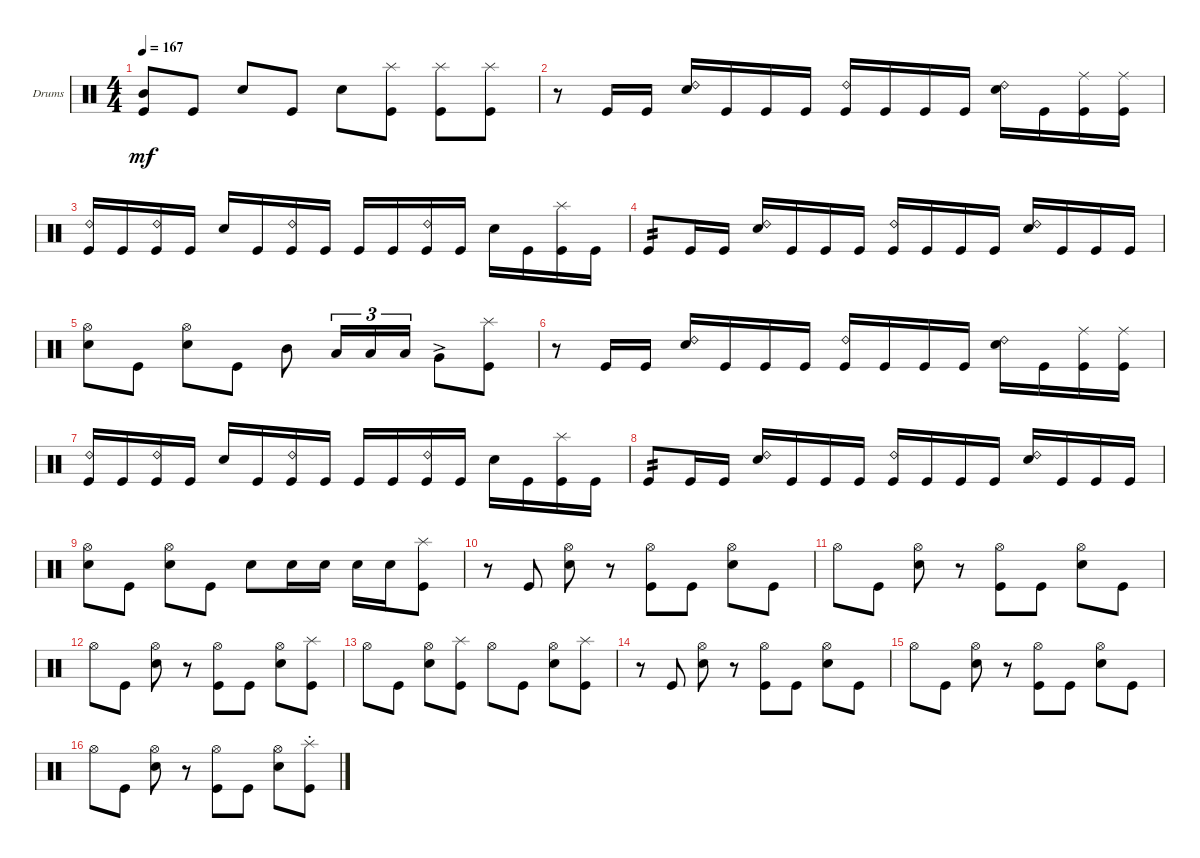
\bracketExtendMode groupsimilarinstruments
\firstSystemTrackNameOrientation horizontal
\otherSystemsTrackNameOrientation horizontal
\track ("Drumkit" "Drums") {instrument percussion}
\staff {score}
\articulation defaults
\ts (4 4)
\tempo 167
\clef neutral
\ks c
("Kick (hit)" "Mid Tom (hit)").8{dy mf} "Kick (hit)".8 "Snare (hit) 2".8 "Kick (hit)".8 "Snare (hit) 2".8 ("Kick (hit)" "Splash (hit)").8 ("Kick (hit)" "Splash (hit)").8 ("Kick (hit)" "Splash (hit)").8 |
r.8 "Kick (hit)".16 "Kick (hit)".16 ("Snare (hit) 2" "Ride (bell) 2").16 "Kick (hit)".16 "Kick (hit)".16 "Kick (hit)".16 ("Kick (hit)" "Ride (bell) 2").16 "Kick (hit)".16 "Kick (hit)".16 "Kick (hit)".16 ("Snare (hit) 2" "Ride (bell) 2").16 "Kick (hit)".16 ("Kick (hit)" "Ride (middle)").16 ("Kick (hit)" "Ride (middle)").16 |
("Kick (hit)" "Ride (bell) 2").16 "Kick (hit)".16 ("Kick (hit)" "Ride (bell) 2").16 "Kick (hit)".16 "Snare (hit) 2".16 "Kick (hit)".16 ("Kick (hit)" "Ride (bell) 2").16 "Kick (hit)".16 "Kick (hit)".16 "Kick (hit)".16 ("Kick (hit)" "Ride (bell) 2").16 "Kick (hit)".16 "Snare (hit) 2".16 "Kick (hit)".16 ("Kick (hit)" "Splash (hit)").16 "Kick (hit)".16 |
"Kick (hit)".8{tp 2} "Kick (hit)".16 "Kick (hit)".16 ("Snare (hit) 2" "Ride (bell) 2").16 "Kick (hit)".16 "Kick (hit)".16 "Kick (hit)".16 ("Kick (hit)" "Ride (bell) 2").16 "Kick (hit)".16 "Kick (hit)".16 "Kick (hit)".16 ("Snare (hit) 2" "Ride (bell) 2").16 "Kick (hit)".16 "Kick (hit)".16 "Kick (hit)".16 |
("Snare (hit) 2" "Hi-Hat (open)").8 "Kick (hit)".8 ("Snare (hit) 2" "Hi-Hat (open)").8 "Kick (hit)".8 "Mid Tom (hit)".8 "Low Tom (hit)".16{tu (3 2)} "Low Tom (hit)".16{tu (3 2)} "Low Tom (hit)".16{tu (3 2)} "Very Low Tom (hit)"{ac}.8 ("Kick (hit)" "Splash (hit)").8 |
r.8 "Kick (hit)".16 "Kick (hit)".16 ("Snare (hit) 2" "Ride (bell) 2").16 "Kick (hit)".16 "Kick (hit)".16 "Kick (hit)".16 ("Kick (hit)" "Ride (bell) 2").16 "Kick (hit)".16 "Kick (hit)".16 "Kick (hit)".16 ("Snare (hit) 2" "Ride (bell) 2").16 "Kick (hit)".16 ("Kick (hit)" "Ride (middle)").16 ("Kick (hit)" "Ride (middle)").16 |
("Kick (hit)" "Ride (bell) 2").16 "Kick (hit)".16 ("Kick (hit)" "Ride (bell) 2").16 "Kick (hit)".16 "Snare (hit) 2".16 "Kick (hit)".16 ("Kick (hit)" "Ride (bell) 2").16 "Kick (hit)".16 "Kick (hit)".16 "Kick (hit)".16 ("Kick (hit)" "Ride (bell) 2").16 "Kick (hit)".16 "Snare (hit) 2".16 "Kick (hit)".16 ("Kick (hit)" "Splash (hit)").16 "Kick (hit)".16 |
"Kick (hit)".8{tp 2} "Kick (hit)".16 "Kick (hit)".16 ("Snare (hit) 2" "Ride (bell) 2").16 "Kick (hit)".16 "Kick (hit)".16 "Kick (hit)".16 ("Kick (hit)" "Ride (bell) 2").16 "Kick (hit)".16 "Kick (hit)".16 "Kick (hit)".16 ("Snare (hit) 2" "Ride (bell) 2").16 "Kick (hit)".16 "Kick (hit)".16 "Kick (hit)".16 |
("Snare (hit) 2" "Hi-Hat (open)").8 "Kick (hit)".8 ("Snare (hit) 2" "Hi-Hat (open)").8 "Kick (hit)".8 "Snare (hit) 2".8 "Snare (hit) 2".16 "Snare (hit) 2".16 "Snare (hit) 2".16 "Snare (hit) 2".16 ("Kick (hit)" "Splash (hit)").8 |
r.8 "Kick (hit)".8 ("Snare (hit) 2" "Hi-Hat (open)").8 r.8 ("Kick (hit)" "Hi-Hat (open)").8 "Kick (hit)".8 ("Snare (hit) 2" "Hi-Hat (open)").8 "Kick (hit)".8 |
"Hi-Hat (open)".8 "Kick (hit)".8 ("Snare (hit) 2" "Hi-Hat (open)").8 r.8 ("Kick (hit)" "Hi-Hat (open)").8 "Kick (hit)".8 ("Snare (hit) 2" "Hi-Hat (open)").8 "Kick (hit)".8 |
"Hi-Hat (open)".8 "Kick (hit)".8 ("Snare (hit) 2" "Hi-Hat (open)").8 r.8 ("Kick (hit)" "Hi-Hat (open)").8 "Kick (hit)".8 ("Snare (hit) 2" "Hi-Hat (open)").8 ("Kick (hit)" "Splash (hit)").8 |
"Hi-Hat (open)".8 "Kick (hit)".8 ("Snare (hit) 2" "Hi-Hat (open)").8 ("Kick (hit)" "Splash (hit)").8 "Hi-Hat (open)".8 "Kick (hit)".8 ("Snare (hit) 2" "Hi-Hat (open)").8 ("Kick (hit)" "Splash (hit)").8 |
r.8 "Kick (hit)".8 ("Snare (hit) 2" "Hi-Hat (open)").8 r.8 ("Kick (hit)" "Hi-Hat (open)").8 "Kick (hit)".8 ("Snare (hit) 2" "Hi-Hat (open)").8 "Kick (hit)".8 |
"Hi-Hat (open)".8 "Kick (hit)".8 ("Snare (hit) 2" "Hi-Hat (open)").8 r.8 ("Kick (hit)" "Hi-Hat (open)").8 "Kick (hit)".8 ("Snare (hit) 2" "Hi-Hat (open)").8 "Kick (hit)".8 |
"Hi-Hat (open)".8 "Kick (hit)".8 ("Snare (hit) 2" "Hi-Hat (open)").8 r.8 ("Kick (hit)" "Hi-Hat (open)").8 "Kick (hit)".8 ("Snare (hit) 2" "Hi-Hat (open)").8 ("Kick (hit)" "Splash (hit)"{st}).8
